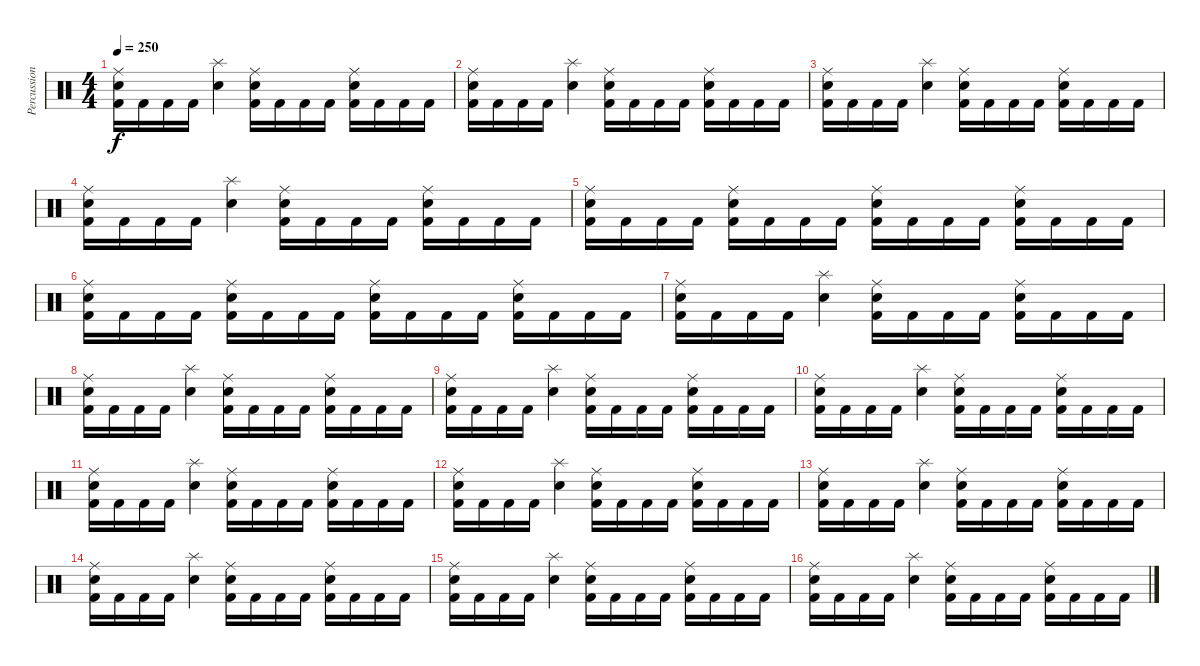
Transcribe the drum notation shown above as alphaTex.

\track ("Percussion" "Percussion") {instrument percussion}
\staff {score}
\articulation defaults
\ts (4 4)
\tempo 250
\clef neutral
\ks c
("Ride (middle)" "Electric Snare (hit)" "Kick (hit) 2").16{dy f} "Kick (hit) 2".16 "Kick (hit) 2".16 "Kick (hit) 2".16 ("Splash (hit)" "Electric Snare (hit)").4 ("Ride (middle)" "Electric Snare (hit)" "Kick (hit) 2").16 "Kick (hit) 2".16 "Kick (hit) 2".16 "Kick (hit) 2".16 ("Ride (middle)" "Electric Snare (hit)" "Kick (hit) 2").16 "Kick (hit) 2".16 "Kick (hit) 2".16 "Kick (hit) 2".16 |
("Ride (middle)" "Electric Snare (hit)" "Kick (hit) 2").16 "Kick (hit) 2".16 "Kick (hit) 2".16 "Kick (hit) 2".16 ("Splash (hit)" "Electric Snare (hit)").4 ("Ride (middle)" "Electric Snare (hit)" "Kick (hit) 2").16 "Kick (hit) 2".16 "Kick (hit) 2".16 "Kick (hit) 2".16 ("Ride (middle)" "Electric Snare (hit)" "Kick (hit) 2").16 "Kick (hit) 2".16 "Kick (hit) 2".16 "Kick (hit) 2".16 |
("Ride (middle)" "Electric Snare (hit)" "Kick (hit) 2").16 "Kick (hit) 2".16 "Kick (hit) 2".16 "Kick (hit) 2".16 ("Splash (hit)" "Electric Snare (hit)").4 ("Ride (middle)" "Electric Snare (hit)" "Kick (hit) 2").16 "Kick (hit) 2".16 "Kick (hit) 2".16 "Kick (hit) 2".16 ("Ride (middle)" "Electric Snare (hit)" "Kick (hit) 2").16 "Kick (hit) 2".16 "Kick (hit) 2".16 "Kick (hit) 2".16 |
("Ride (middle)" "Electric Snare (hit)" "Kick (hit) 2").16 "Kick (hit) 2".16 "Kick (hit) 2".16 "Kick (hit) 2".16 ("Splash (hit)" "Electric Snare (hit)").4 ("Ride (middle)" "Electric Snare (hit)" "Kick (hit) 2").16 "Kick (hit) 2".16 "Kick (hit) 2".16 "Kick (hit) 2".16 ("Ride (middle)" "Electric Snare (hit)" "Kick (hit) 2").16 "Kick (hit) 2".16 "Kick (hit) 2".16 "Kick (hit) 2".16 |
("Ride (middle)" "Electric Snare (hit)" "Kick (hit) 2").16 "Kick (hit) 2".16 "Kick (hit) 2".16 "Kick (hit) 2".16 ("Ride (middle)" "Electric Snare (hit)" "Kick (hit) 2").16 "Kick (hit) 2".16 "Kick (hit) 2".16 "Kick (hit) 2".16 ("Ride (middle)" "Electric Snare (hit)" "Kick (hit) 2").16 "Kick (hit) 2".16 "Kick (hit) 2".16 "Kick (hit) 2".16 ("Ride (middle)" "Electric Snare (hit)" "Kick (hit) 2").16 "Kick (hit) 2".16 "Kick (hit) 2".16 "Kick (hit) 2".16 |
("Ride (middle)" "Electric Snare (hit)" "Kick (hit) 2").16 "Kick (hit) 2".16 "Kick (hit) 2".16 "Kick (hit) 2".16 ("Ride (middle)" "Electric Snare (hit)" "Kick (hit) 2").16 "Kick (hit) 2".16 "Kick (hit) 2".16 "Kick (hit) 2".16 ("Ride (middle)" "Electric Snare (hit)" "Kick (hit) 2").16 "Kick (hit) 2".16 "Kick (hit) 2".16 "Kick (hit) 2".16 ("Ride (middle)" "Electric Snare (hit)" "Kick (hit) 2").16 "Kick (hit) 2".16 "Kick (hit) 2".16 "Kick (hit) 2".16 |
("Ride (middle)" "Electric Snare (hit)" "Kick (hit) 2").16 "Kick (hit) 2".16 "Kick (hit) 2".16 "Kick (hit) 2".16 ("Splash (hit)" "Electric Snare (hit)").4 ("Ride (middle)" "Electric Snare (hit)" "Kick (hit) 2").16 "Kick (hit) 2".16 "Kick (hit) 2".16 "Kick (hit) 2".16 ("Ride (middle)" "Electric Snare (hit)" "Kick (hit) 2").16 "Kick (hit) 2".16 "Kick (hit) 2".16 "Kick (hit) 2".16 |
("Ride (middle)" "Electric Snare (hit)" "Kick (hit) 2").16 "Kick (hit) 2".16 "Kick (hit) 2".16 "Kick (hit) 2".16 ("Splash (hit)" "Electric Snare (hit)").4 ("Ride (middle)" "Electric Snare (hit)" "Kick (hit) 2").16 "Kick (hit) 2".16 "Kick (hit) 2".16 "Kick (hit) 2".16 ("Ride (middle)" "Electric Snare (hit)" "Kick (hit) 2").16 "Kick (hit) 2".16 "Kick (hit) 2".16 "Kick (hit) 2".16 |
("Ride (middle)" "Electric Snare (hit)" "Kick (hit) 2").16 "Kick (hit) 2".16 "Kick (hit) 2".16 "Kick (hit) 2".16 ("Splash (hit)" "Electric Snare (hit)").4 ("Ride (middle)" "Electric Snare (hit)" "Kick (hit) 2").16 "Kick (hit) 2".16 "Kick (hit) 2".16 "Kick (hit) 2".16 ("Ride (middle)" "Electric Snare (hit)" "Kick (hit) 2").16 "Kick (hit) 2".16 "Kick (hit) 2".16 "Kick (hit) 2".16 |
("Ride (middle)" "Electric Snare (hit)" "Kick (hit) 2").16 "Kick (hit) 2".16 "Kick (hit) 2".16 "Kick (hit) 2".16 ("Splash (hit)" "Electric Snare (hit)").4 ("Ride (middle)" "Electric Snare (hit)" "Kick (hit) 2").16 "Kick (hit) 2".16 "Kick (hit) 2".16 "Kick (hit) 2".16 ("Ride (middle)" "Electric Snare (hit)" "Kick (hit) 2").16 "Kick (hit) 2".16 "Kick (hit) 2".16 "Kick (hit) 2".16 |
("Ride (middle)" "Electric Snare (hit)" "Kick (hit) 2").16 "Kick (hit) 2".16 "Kick (hit) 2".16 "Kick (hit) 2".16 ("Splash (hit)" "Electric Snare (hit)").4 ("Ride (middle)" "Electric Snare (hit)" "Kick (hit) 2").16 "Kick (hit) 2".16 "Kick (hit) 2".16 "Kick (hit) 2".16 ("Ride (middle)" "Electric Snare (hit)" "Kick (hit) 2").16 "Kick (hit) 2".16 "Kick (hit) 2".16 "Kick (hit) 2".16 |
("Ride (middle)" "Electric Snare (hit)" "Kick (hit) 2").16 "Kick (hit) 2".16 "Kick (hit) 2".16 "Kick (hit) 2".16 ("Splash (hit)" "Electric Snare (hit)").4 ("Ride (middle)" "Electric Snare (hit)" "Kick (hit) 2").16 "Kick (hit) 2".16 "Kick (hit) 2".16 "Kick (hit) 2".16 ("Ride (middle)" "Electric Snare (hit)" "Kick (hit) 2").16 "Kick (hit) 2".16 "Kick (hit) 2".16 "Kick (hit) 2".16 |
("Ride (middle)" "Electric Snare (hit)" "Kick (hit) 2").16 "Kick (hit) 2".16 "Kick (hit) 2".16 "Kick (hit) 2".16 ("Splash (hit)" "Electric Snare (hit)").4 ("Ride (middle)" "Electric Snare (hit)" "Kick (hit) 2").16 "Kick (hit) 2".16 "Kick (hit) 2".16 "Kick (hit) 2".16 ("Ride (middle)" "Electric Snare (hit)" "Kick (hit) 2").16 "Kick (hit) 2".16 "Kick (hit) 2".16 "Kick (hit) 2".16 |
("Ride (middle)" "Electric Snare (hit)" "Kick (hit) 2").16 "Kick (hit) 2".16 "Kick (hit) 2".16 "Kick (hit) 2".16 ("Splash (hit)" "Electric Snare (hit)").4 ("Ride (middle)" "Electric Snare (hit)" "Kick (hit) 2").16 "Kick (hit) 2".16 "Kick (hit) 2".16 "Kick (hit) 2".16 ("Ride (middle)" "Electric Snare (hit)" "Kick (hit) 2").16 "Kick (hit) 2".16 "Kick (hit) 2".16 "Kick (hit) 2".16 |
("Ride (middle)" "Electric Snare (hit)" "Kick (hit) 2").16 "Kick (hit) 2".16 "Kick (hit) 2".16 "Kick (hit) 2".16 ("Splash (hit)" "Electric Snare (hit)").4 ("Ride (middle)" "Electric Snare (hit)" "Kick (hit) 2").16 "Kick (hit) 2".16 "Kick (hit) 2".16 "Kick (hit) 2".16 ("Ride (middle)" "Electric Snare (hit)" "Kick (hit) 2").16 "Kick (hit) 2".16 "Kick (hit) 2".16 "Kick (hit) 2".16 |
("Ride (middle)" "Electric Snare (hit)" "Kick (hit) 2").16 "Kick (hit) 2".16 "Kick (hit) 2".16 "Kick (hit) 2".16 ("Splash (hit)" "Electric Snare (hit)").4 ("Ride (middle)" "Electric Snare (hit)" "Kick (hit) 2").16 "Kick (hit) 2".16 "Kick (hit) 2".16 "Kick (hit) 2".16 ("Ride (middle)" "Electric Snare (hit)" "Kick (hit) 2").16 "Kick (hit) 2".16 "Kick (hit) 2".16 "Kick (hit) 2".16
